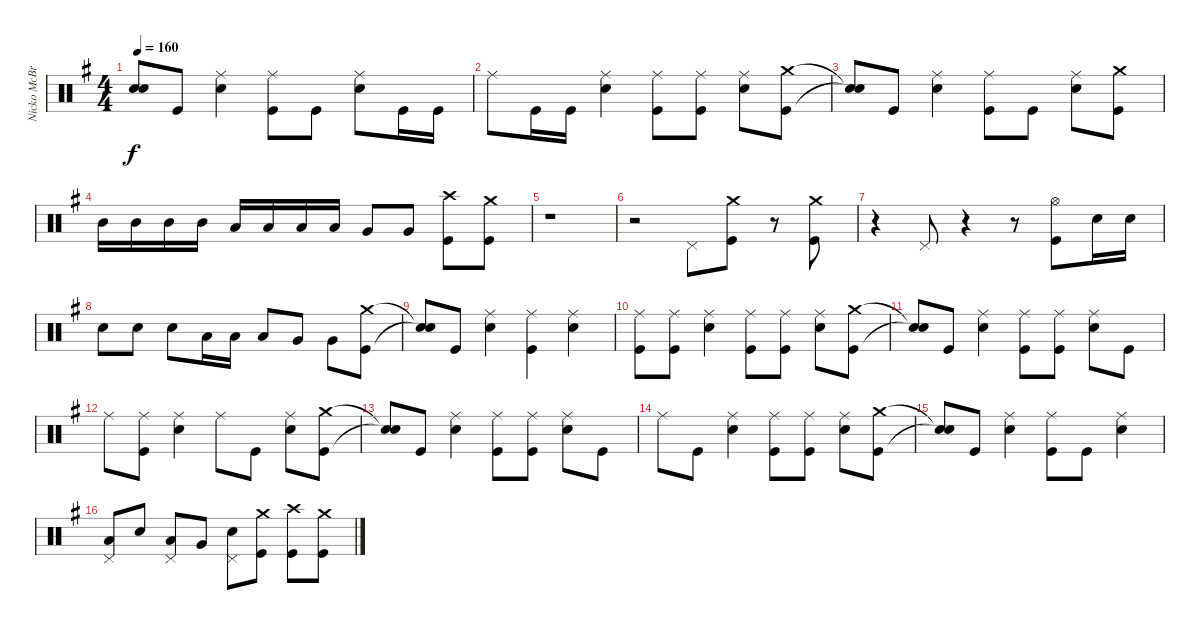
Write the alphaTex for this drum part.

\track ("Nicko McBrain" "Nicko McBr") {instrument percussion}
\staff {score}
\articulation defaults
\ts (4 4)
\tempo 160
\clef neutral
\ks g
("Snare (hit)"{t} "Snare (hit)"{t}).8{dy f} "Kick (hit)".8 ("Electric Snare (hit)" "Ride (middle)").4 ("Kick (hit)" "Ride (middle)").8 "Kick (hit)".8 ("Electric Snare (hit)" "Ride (middle)").8 "Kick (hit)".16 "Kick (hit)".16 |
"Ride (middle)".8 "Kick (hit)".16 "Kick (hit)".16 ("Electric Snare (hit)" "Ride (middle)").4 ("Kick (hit)" "Ride (middle)").8 ("Kick (hit)" "Ride (middle)").8 ("Electric Snare (hit)" "Ride (middle)").8 ("Kick (hit)" "Crash medium (hit)").8 |
("Snare (hit)"{t} "Snare (hit)"{t}).8 "Kick (hit)".8 ("Electric Snare (hit)" "Ride (middle)").4 ("Kick (hit)" "Ride (middle)").8 "Kick (hit)".8 ("Electric Snare (hit)" "Ride (middle)").8 ("Kick (hit)" "Crash medium (hit)").8 |
"Mid Tom (hit)".16 "Mid Tom (hit)".16 "Mid Tom (hit)".16 "Mid Tom (hit)".16 "Low Tom (hit)".16 "Low Tom (hit)".16 "Low Tom (hit)".16 "Low Tom (hit)".16 "Very Low Tom (hit)".8 "Very Low Tom (hit)".8 ("Kick (hit)" "Crash high (hit)").8 ("Kick (hit)" "Crash medium (hit)").8 |
r.1 |
r.2 "Pedal Hi-Hat (hit)".8 ("Kick (hit)" "Crash medium (hit)").8 r.8 ("Kick (hit)" "Crash medium (hit)").8 |
r.4 "Pedal Hi-Hat (hit)".8 r.4 r.8 ("Kick (hit)" "Hi-Hat (open)").8 "Electric Snare (hit)".16 "Electric Snare (hit)".16 |
"Electric Snare (hit)".8 "Electric Snare (hit)".8 "Electric Snare (hit)".8 "Low Tom (hit)".16 "Low Tom (hit)".16 "Low Tom (hit)".8 "Very Low Tom (hit)".8 "Very Low Tom (hit)".8 ("Kick (hit)" "Crash medium (hit)").8 |
("Snare (hit)"{t} "Snare (hit)"{t}).8 "Kick (hit)".8 ("Electric Snare (hit)" "Ride (middle)").4 ("Kick (hit)" "Ride (middle)").4 ("Electric Snare (hit)" "Ride (middle)").4 |
("Kick (hit)" "Ride (middle)").8 ("Kick (hit)" "Ride (middle)").8 ("Electric Snare (hit)" "Ride (middle)").4 ("Kick (hit)" "Ride (middle)").8 ("Kick (hit)" "Ride (middle)").8 ("Electric Snare (hit)" "Ride (middle)").8 ("Kick (hit)" "Crash medium (hit)").8 |
("Snare (hit)"{t} "Snare (hit)"{t}).8 "Kick (hit)".8 ("Electric Snare (hit)" "Ride (middle)").4 ("Kick (hit)" "Ride (middle)").8 ("Kick (hit)" "Ride (middle)").8 ("Electric Snare (hit)" "Ride (middle)").8 "Kick (hit)".8 |
"Ride (middle)".8 ("Kick (hit)" "Ride (middle)").8 ("Electric Snare (hit)" "Ride (middle)").4 "Ride (middle)".8 "Kick (hit)".8 ("Electric Snare (hit)" "Ride (middle)").8 ("Kick (hit)" "Crash medium (hit)").8 |
("Snare (hit)"{t} "Snare (hit)"{t}).8 "Kick (hit)".8 ("Electric Snare (hit)" "Ride (middle)").4 ("Kick (hit)" "Ride (middle)").8 ("Kick (hit)" "Ride (middle)").8 ("Electric Snare (hit)" "Ride (middle)").8 "Kick (hit)".8 |
"Ride (middle)".8 "Kick (hit)".8 ("Electric Snare (hit)" "Ride (middle)").4 ("Kick (hit)" "Ride (middle)").8 ("Kick (hit)" "Ride (middle)").8 ("Electric Snare (hit)" "Ride (middle)").8 ("Kick (hit)" "Crash medium (hit)").8 |
("Snare (hit)"{t} "Snare (hit)"{t}).8 "Kick (hit)".8 ("Electric Snare (hit)" "Ride (middle)").4 ("Kick (hit)" "Ride (middle)").8 "Kick (hit)".8 ("Electric Snare (hit)" "Ride (middle)").4 |
("Low Tom (hit)" "Pedal Hi-Hat (hit)").8 "Electric Snare (hit)".8 ("Low Tom (hit)" "Pedal Hi-Hat (hit)").8 "Very Low Tom (hit)".8 ("Electric Snare (hit)" "Pedal Hi-Hat (hit)").8 ("Kick (hit)" "Crash medium (hit)").8 ("Kick (hit)" "Crash high (hit)").8 ("Kick (hit)" "Crash medium (hit)").8
